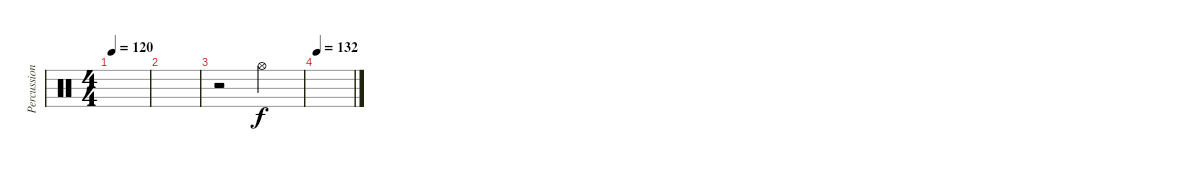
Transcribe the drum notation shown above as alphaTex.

\track ("Percussion" "Percussion") {instrument percussion}
\staff {score}
\articulation defaults
\ts (4 4)
\tempo 120
\clef neutral
\ks c
|
|
r.2 "Hi-Hat (open)".2 |
\tempo 132
